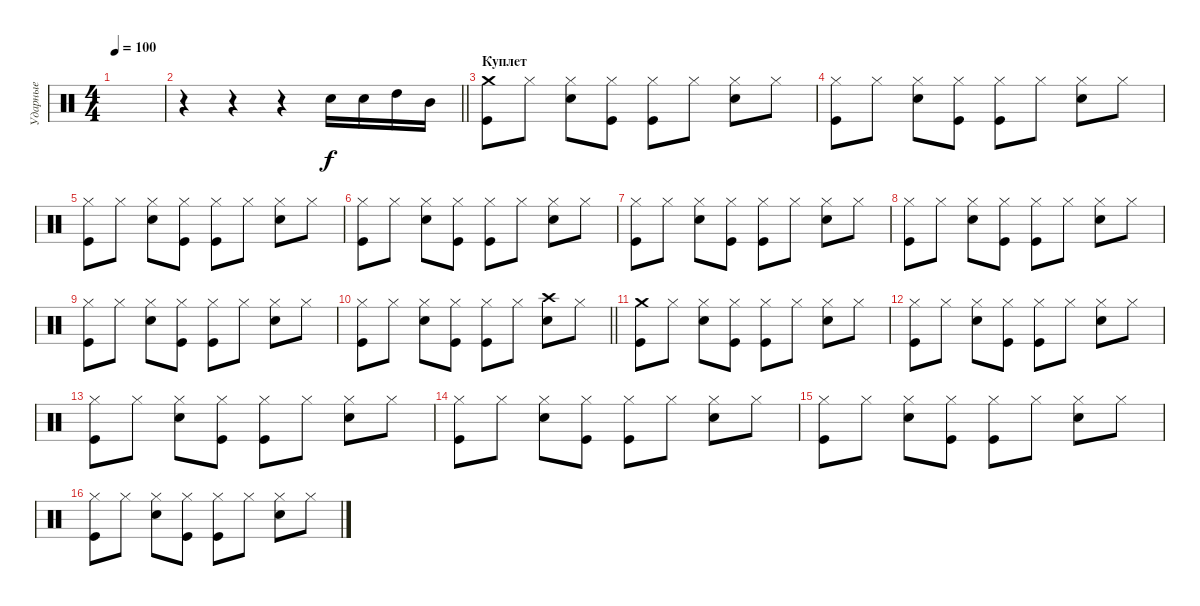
\track ("Ударные" "Ударные") {instrument percussion}
\staff {score}
\articulation defaults
\ts (4 4)
\tempo 100
\clef neutral
\ks c
|
\barLineRight lightlight
r.4 r.4 r.4 "Electric Snare (hit)".16 "Electric Snare (hit)".16 "High Tom (hit)".16 "Mid Tom (hit)".16 |
\section ("" "Куплет")
("Crash medium (hit)" "Kick (hit)").8 "Hi-Hat (closed)".8 ("Hi-Hat (closed)" "Electric Snare (hit)").8 ("Hi-Hat (closed)" "Kick (hit)").8 ("Hi-Hat (closed)" "Kick (hit)").8 "Hi-Hat (closed)".8 ("Hi-Hat (closed)" "Electric Snare (hit)").8 "Hi-Hat (closed)".8 |
("Hi-Hat (closed)" "Kick (hit)").8 "Hi-Hat (closed)".8 ("Hi-Hat (closed)" "Electric Snare (hit)").8 ("Hi-Hat (closed)" "Kick (hit)").8 ("Hi-Hat (closed)" "Kick (hit)").8 "Hi-Hat (closed)".8 ("Hi-Hat (closed)" "Electric Snare (hit)").8 "Hi-Hat (closed)".8 |
("Hi-Hat (closed)" "Kick (hit)").8 "Hi-Hat (closed)".8 ("Hi-Hat (closed)" "Electric Snare (hit)").8 ("Hi-Hat (closed)" "Kick (hit)").8 ("Hi-Hat (closed)" "Kick (hit)").8 "Hi-Hat (closed)".8 ("Hi-Hat (closed)" "Electric Snare (hit)").8 "Hi-Hat (closed)".8 |
("Hi-Hat (closed)" "Kick (hit)").8 "Hi-Hat (closed)".8 ("Hi-Hat (closed)" "Electric Snare (hit)").8 ("Hi-Hat (closed)" "Kick (hit)").8 ("Hi-Hat (closed)" "Kick (hit)").8 "Hi-Hat (closed)".8 ("Hi-Hat (closed)" "Electric Snare (hit)").8 "Hi-Hat (closed)".8 |
("Hi-Hat (closed)" "Kick (hit)").8 "Hi-Hat (closed)".8 ("Hi-Hat (closed)" "Electric Snare (hit)").8 ("Hi-Hat (closed)" "Kick (hit)").8 ("Hi-Hat (closed)" "Kick (hit)").8 "Hi-Hat (closed)".8 ("Hi-Hat (closed)" "Electric Snare (hit)").8 "Hi-Hat (closed)".8 |
("Hi-Hat (closed)" "Kick (hit)").8 "Hi-Hat (closed)".8 ("Hi-Hat (closed)" "Electric Snare (hit)").8 ("Hi-Hat (closed)" "Kick (hit)").8 ("Hi-Hat (closed)" "Kick (hit)").8 "Hi-Hat (closed)".8 ("Hi-Hat (closed)" "Electric Snare (hit)").8 "Hi-Hat (closed)".8 |
("Hi-Hat (closed)" "Kick (hit)").8 "Hi-Hat (closed)".8 ("Hi-Hat (closed)" "Electric Snare (hit)").8 ("Hi-Hat (closed)" "Kick (hit)").8 ("Hi-Hat (closed)" "Kick (hit)").8 "Hi-Hat (closed)".8 ("Hi-Hat (closed)" "Electric Snare (hit)").8 "Hi-Hat (closed)".8 |
\barLineRight lightlight
("Hi-Hat (closed)" "Kick (hit)").8 "Hi-Hat (closed)".8 ("Hi-Hat (closed)" "Electric Snare (hit)").8 ("Hi-Hat (closed)" "Kick (hit)").8 ("Hi-Hat (closed)" "Kick (hit)").8 "Hi-Hat (closed)".8 ("Crash high (hit)" "Electric Snare (hit)").8 "Hi-Hat (closed)".8 |
\section ("" " ")
("Crash medium (hit)" "Kick (hit)").8 "Hi-Hat (closed)".8 ("Hi-Hat (closed)" "Electric Snare (hit)").8 ("Hi-Hat (closed)" "Kick (hit)").8 ("Hi-Hat (closed)" "Kick (hit)").8 "Hi-Hat (closed)".8 ("Hi-Hat (closed)" "Electric Snare (hit)").8 "Hi-Hat (closed)".8 |
("Hi-Hat (closed)" "Kick (hit)").8 "Hi-Hat (closed)".8 ("Hi-Hat (closed)" "Electric Snare (hit)").8 ("Hi-Hat (closed)" "Kick (hit)").8 ("Hi-Hat (closed)" "Kick (hit)").8 "Hi-Hat (closed)".8 ("Hi-Hat (closed)" "Electric Snare (hit)").8 "Hi-Hat (closed)".8 |
("Hi-Hat (closed)" "Kick (hit)").8 "Hi-Hat (closed)".8 ("Hi-Hat (closed)" "Electric Snare (hit)").8 ("Hi-Hat (closed)" "Kick (hit)").8 ("Hi-Hat (closed)" "Kick (hit)").8 "Hi-Hat (closed)".8 ("Hi-Hat (closed)" "Electric Snare (hit)").8 "Hi-Hat (closed)".8 |
("Hi-Hat (closed)" "Kick (hit)").8 "Hi-Hat (closed)".8 ("Hi-Hat (closed)" "Electric Snare (hit)").8 ("Hi-Hat (closed)" "Kick (hit)").8 ("Hi-Hat (closed)" "Kick (hit)").8 "Hi-Hat (closed)".8 ("Hi-Hat (closed)" "Electric Snare (hit)").8 "Hi-Hat (closed)".8 |
("Hi-Hat (closed)" "Kick (hit)").8 "Hi-Hat (closed)".8 ("Hi-Hat (closed)" "Electric Snare (hit)").8 ("Hi-Hat (closed)" "Kick (hit)").8 ("Hi-Hat (closed)" "Kick (hit)").8 "Hi-Hat (closed)".8 ("Hi-Hat (closed)" "Electric Snare (hit)").8 "Hi-Hat (closed)".8 |
("Hi-Hat (closed)" "Kick (hit)").8 "Hi-Hat (closed)".8 ("Hi-Hat (closed)" "Electric Snare (hit)").8 ("Hi-Hat (closed)" "Kick (hit)").8 ("Hi-Hat (closed)" "Kick (hit)").8 "Hi-Hat (closed)".8 ("Hi-Hat (closed)" "Electric Snare (hit)").8 "Hi-Hat (closed)".8
